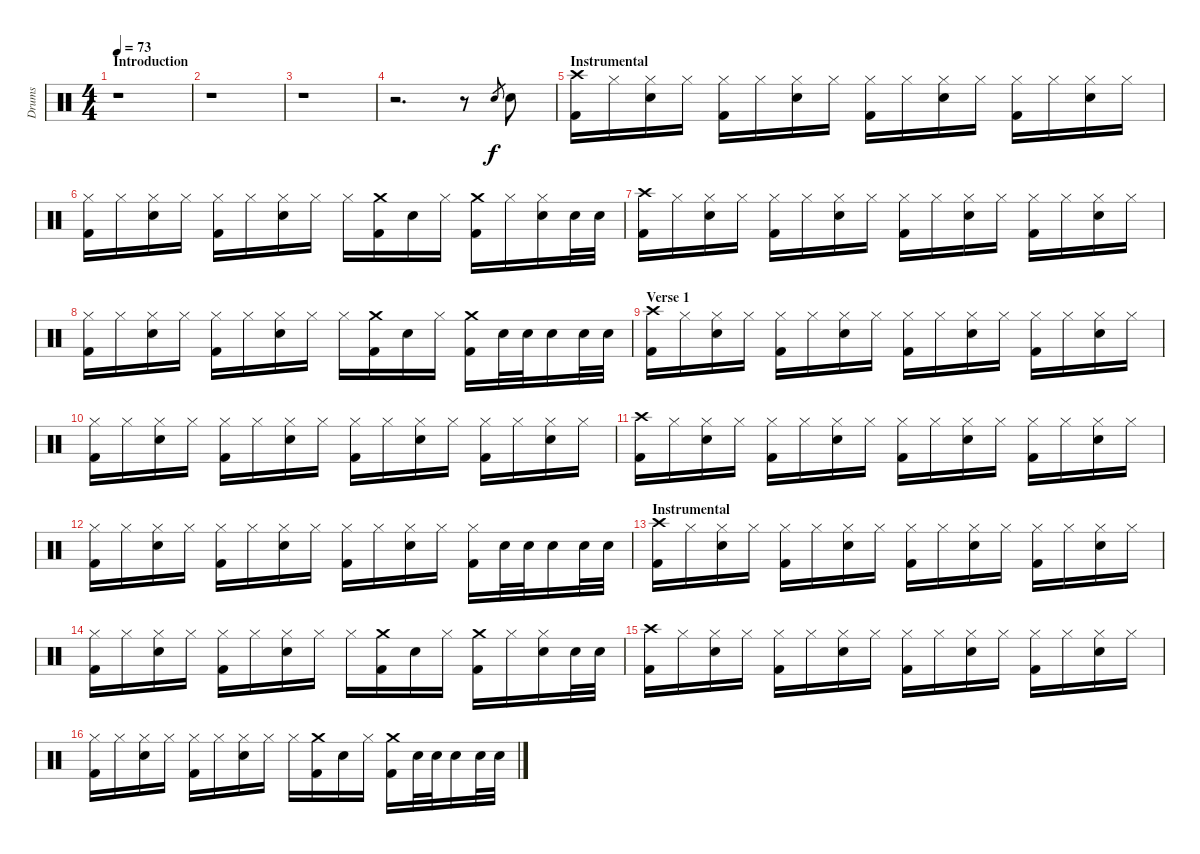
\track ("Drums" "Drums") {instrument percussion}
\staff {score}
\articulation defaults
\ts (4 4)
\section ("" "Introduction")
\tempo 73
\clef neutral
\ks c
r.1{dy f} |
r.1 |
r.1 |
r.2{d} r.8 "Snare (hit) 2".8{gr} "Snare (hit) 2".8 |
\section ("" "Instrumental")
("Crash high (hit)" "Kick (hit) 2").16 "Hi-Hat (closed)".16 ("Hi-Hat (closed)" "Snare (hit) 2").16 "Hi-Hat (closed)".16 ("Hi-Hat (closed)" "Kick (hit) 2").16 "Hi-Hat (closed)".16 ("Hi-Hat (closed)" "Snare (hit) 2").16 "Hi-Hat (closed)".16 ("Hi-Hat (closed)" "Kick (hit) 2").16 "Hi-Hat (closed)".16 ("Hi-Hat (closed)" "Snare (hit) 2").16 "Hi-Hat (closed)".16 ("Hi-Hat (closed)" "Kick (hit) 2").16 "Hi-Hat (closed)".16 ("Hi-Hat (closed)" "Snare (hit) 2").16 "Hi-Hat (closed)".16 |
("Hi-Hat (closed)" "Kick (hit) 2").16 "Hi-Hat (closed)".16 ("Hi-Hat (closed)" "Snare (hit) 2").16 "Hi-Hat (closed)".16 ("Hi-Hat (closed)" "Kick (hit) 2").16 "Hi-Hat (closed)".16 ("Hi-Hat (closed)" "Snare (hit) 2").16 "Hi-Hat (closed)".16 "Hi-Hat (closed)".16 ("Crash medium (hit)" "Kick (hit) 2").16 "Snare (hit) 2".16 "Hi-Hat (closed)".16 ("Crash medium (hit)" "Kick (hit) 2").16 "Hi-Hat (closed)".16 ("Hi-Hat (closed)" "Snare (hit) 2").16 "Snare (hit) 2".32 "Snare (hit) 2".32 |
("Crash high (hit)" "Kick (hit) 2").16 "Hi-Hat (closed)".16 ("Hi-Hat (closed)" "Snare (hit) 2").16 "Hi-Hat (closed)".16 ("Hi-Hat (closed)" "Kick (hit) 2").16 "Hi-Hat (closed)".16 ("Hi-Hat (closed)" "Snare (hit) 2").16 "Hi-Hat (closed)".16 ("Hi-Hat (closed)" "Kick (hit) 2").16 "Hi-Hat (closed)".16 ("Hi-Hat (closed)" "Snare (hit) 2").16 "Hi-Hat (closed)".16 ("Hi-Hat (closed)" "Kick (hit) 2").16 "Hi-Hat (closed)".16 ("Hi-Hat (closed)" "Snare (hit) 2").16 "Hi-Hat (closed)".16 |
("Hi-Hat (closed)" "Kick (hit) 2").16 "Hi-Hat (closed)".16 ("Hi-Hat (closed)" "Snare (hit) 2").16 "Hi-Hat (closed)".16 ("Hi-Hat (closed)" "Kick (hit) 2").16 "Hi-Hat (closed)".16 ("Hi-Hat (closed)" "Snare (hit) 2").16 "Hi-Hat (closed)".16 "Hi-Hat (closed)".16 ("Crash medium (hit)" "Kick (hit) 2").16 "Snare (hit) 2".16 "Hi-Hat (closed)".16 ("Crash medium (hit)" "Kick (hit) 2").16 "Snare (hit) 2".32 "Snare (hit) 2".32 "Snare (hit) 2".16 "Snare (hit) 2".32 "Snare (hit) 2".32 |
\section ("" "Verse 1")
("Crash high (hit)" "Kick (hit) 2").16 "Hi-Hat (closed)".16 ("Hi-Hat (closed)" "Snare (hit) 2").16 "Hi-Hat (closed)".16 ("Hi-Hat (closed)" "Kick (hit) 2").16 "Hi-Hat (closed)".16 ("Hi-Hat (closed)" "Snare (hit) 2").16 "Hi-Hat (closed)".16 ("Hi-Hat (closed)" "Kick (hit) 2").16 "Hi-Hat (closed)".16 ("Hi-Hat (closed)" "Snare (hit) 2").16 "Hi-Hat (closed)".16 ("Hi-Hat (closed)" "Kick (hit) 2").16 "Hi-Hat (closed)".16 ("Hi-Hat (closed)" "Snare (hit) 2").16 "Hi-Hat (closed)".16 |
("Hi-Hat (closed)" "Kick (hit) 2").16 "Hi-Hat (closed)".16 ("Hi-Hat (closed)" "Snare (hit) 2").16 "Hi-Hat (closed)".16 ("Hi-Hat (closed)" "Kick (hit) 2").16 "Hi-Hat (closed)".16 ("Hi-Hat (closed)" "Snare (hit) 2").16 "Hi-Hat (closed)".16 ("Hi-Hat (closed)" "Kick (hit) 2").16 "Hi-Hat (closed)".16 ("Hi-Hat (closed)" "Snare (hit) 2").16 "Hi-Hat (closed)".16 ("Hi-Hat (closed)" "Kick (hit) 2").16 "Hi-Hat (closed)".16 ("Hi-Hat (closed)" "Snare (hit) 2").16 "Hi-Hat (closed)".16 |
("Crash high (hit)" "Kick (hit) 2").16 "Hi-Hat (closed)".16 ("Hi-Hat (closed)" "Snare (hit) 2").16 "Hi-Hat (closed)".16 ("Hi-Hat (closed)" "Kick (hit) 2").16 "Hi-Hat (closed)".16 ("Hi-Hat (closed)" "Snare (hit) 2").16 "Hi-Hat (closed)".16 ("Hi-Hat (closed)" "Kick (hit) 2").16 "Hi-Hat (closed)".16 ("Hi-Hat (closed)" "Snare (hit) 2").16 "Hi-Hat (closed)".16 ("Hi-Hat (closed)" "Kick (hit) 2").16 "Hi-Hat (closed)".16 ("Hi-Hat (closed)" "Snare (hit) 2").16 "Hi-Hat (closed)".16 |
("Hi-Hat (closed)" "Kick (hit) 2").16 "Hi-Hat (closed)".16 ("Hi-Hat (closed)" "Snare (hit) 2").16 "Hi-Hat (closed)".16 ("Hi-Hat (closed)" "Kick (hit) 2").16 "Hi-Hat (closed)".16 ("Hi-Hat (closed)" "Snare (hit) 2").16 "Hi-Hat (closed)".16 ("Hi-Hat (closed)" "Kick (hit) 2").16 "Hi-Hat (closed)".16 ("Hi-Hat (closed)" "Snare (hit) 2").16 "Hi-Hat (closed)".16 ("Hi-Hat (closed)" "Kick (hit) 2").16 "Snare (hit) 2".32 "Snare (hit) 2".32 "Snare (hit) 2".16 "Snare (hit) 2".32 "Snare (hit) 2".32 |
\section ("" "Instrumental")
("Crash high (hit)" "Kick (hit) 2").16 "Hi-Hat (closed)".16 ("Hi-Hat (closed)" "Snare (hit) 2").16 "Hi-Hat (closed)".16 ("Hi-Hat (closed)" "Kick (hit) 2").16 "Hi-Hat (closed)".16 ("Hi-Hat (closed)" "Snare (hit) 2").16 "Hi-Hat (closed)".16 ("Hi-Hat (closed)" "Kick (hit) 2").16 "Hi-Hat (closed)".16 ("Hi-Hat (closed)" "Snare (hit) 2").16 "Hi-Hat (closed)".16 ("Hi-Hat (closed)" "Kick (hit) 2").16 "Hi-Hat (closed)".16 ("Hi-Hat (closed)" "Snare (hit) 2").16 "Hi-Hat (closed)".16 |
("Hi-Hat (closed)" "Kick (hit) 2").16 "Hi-Hat (closed)".16 ("Hi-Hat (closed)" "Snare (hit) 2").16 "Hi-Hat (closed)".16 ("Hi-Hat (closed)" "Kick (hit) 2").16 "Hi-Hat (closed)".16 ("Hi-Hat (closed)" "Snare (hit) 2").16 "Hi-Hat (closed)".16 "Hi-Hat (closed)".16 ("Crash medium (hit)" "Kick (hit) 2").16 "Snare (hit) 2".16 "Hi-Hat (closed)".16 ("Crash medium (hit)" "Kick (hit) 2").16 "Hi-Hat (closed)".16 ("Hi-Hat (closed)" "Snare (hit) 2").16 "Snare (hit) 2".32 "Snare (hit) 2".32 |
("Crash high (hit)" "Kick (hit) 2").16 "Hi-Hat (closed)".16 ("Hi-Hat (closed)" "Snare (hit) 2").16 "Hi-Hat (closed)".16 ("Hi-Hat (closed)" "Kick (hit) 2").16 "Hi-Hat (closed)".16 ("Hi-Hat (closed)" "Snare (hit) 2").16 "Hi-Hat (closed)".16 ("Hi-Hat (closed)" "Kick (hit) 2").16 "Hi-Hat (closed)".16 ("Hi-Hat (closed)" "Snare (hit) 2").16 "Hi-Hat (closed)".16 ("Hi-Hat (closed)" "Kick (hit) 2").16 "Hi-Hat (closed)".16 ("Hi-Hat (closed)" "Snare (hit) 2").16 "Hi-Hat (closed)".16 |
("Hi-Hat (closed)" "Kick (hit) 2").16 "Hi-Hat (closed)".16 ("Hi-Hat (closed)" "Snare (hit) 2").16 "Hi-Hat (closed)".16 ("Hi-Hat (closed)" "Kick (hit) 2").16 "Hi-Hat (closed)".16 ("Hi-Hat (closed)" "Snare (hit) 2").16 "Hi-Hat (closed)".16 "Hi-Hat (closed)".16 ("Crash medium (hit)" "Kick (hit) 2").16 "Snare (hit) 2".16 "Hi-Hat (closed)".16 ("Crash medium (hit)" "Kick (hit) 2").16 "Snare (hit) 2".32 "Snare (hit) 2".32 "Snare (hit) 2".16 "Snare (hit) 2".32 "Snare (hit) 2".32
